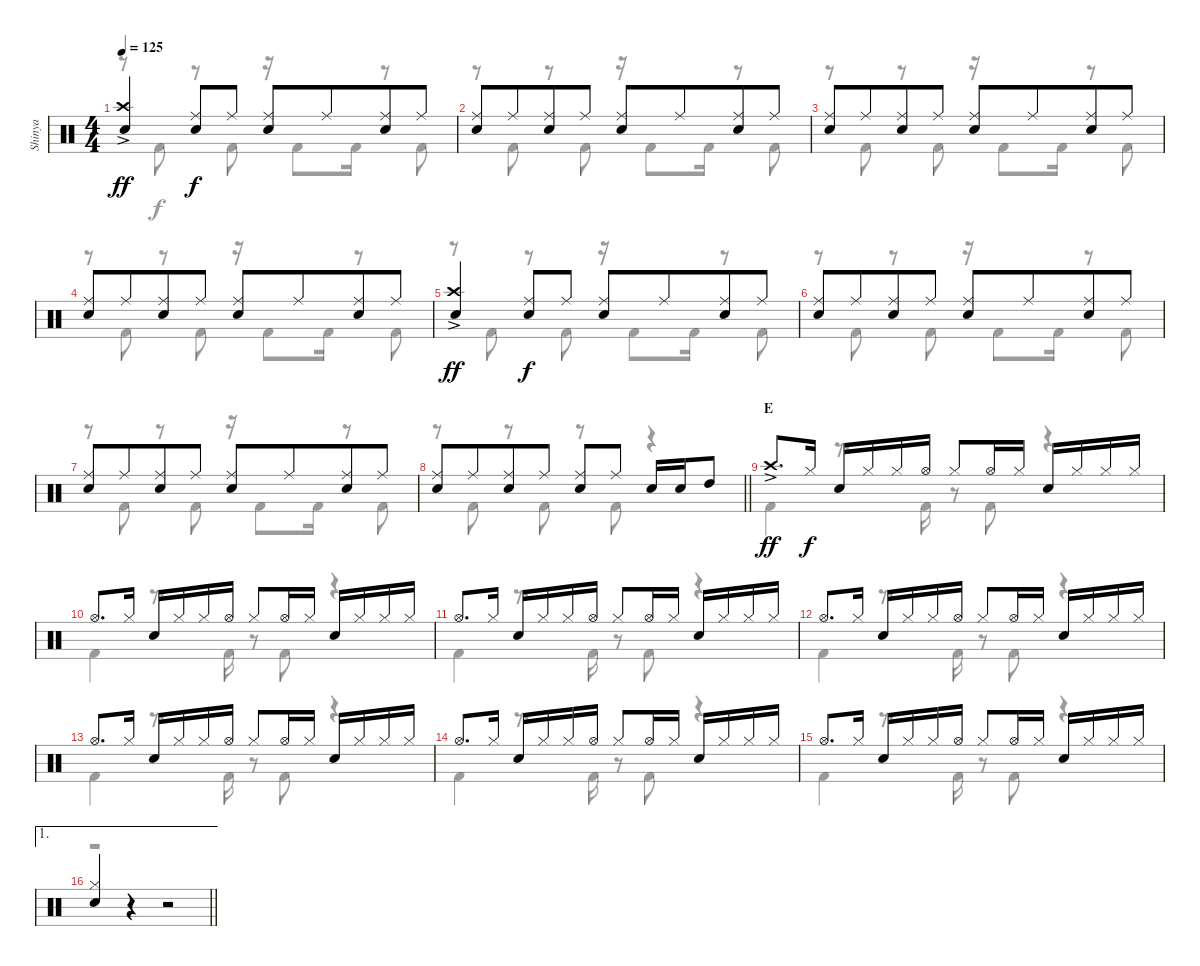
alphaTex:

\track ("Shinya" "Shinya") {instrument percussion}
\staff {score}
\articulation defaults
\voice
\ts (4 4)
\tempo 125
\clef neutral
\ks c
("Crash high (hit)"{ac} "Snare (hit) 2").4{dy ff} ("Ride (middle)" "Snare (hit) 2").8{dy f} "Ride (middle)".8 ("Ride (middle)" "Snare (hit) 2").8 "Ride (middle)".8{beam merge} ("Ride (middle)" "Snare (hit) 2").8 "Ride (middle)".8 |
("Ride (middle)" "Snare (hit) 2").8 "Ride (middle)".8{beam merge} ("Ride (middle)" "Snare (hit) 2").8 "Ride (middle)".8 ("Ride (middle)" "Snare (hit) 2").8 "Ride (middle)".8{beam merge} ("Ride (middle)" "Snare (hit) 2").8 "Ride (middle)".8 |
("Ride (middle)" "Snare (hit) 2").8 "Ride (middle)".8{beam merge} ("Ride (middle)" "Snare (hit) 2").8 "Ride (middle)".8 ("Ride (middle)" "Snare (hit) 2").8 "Ride (middle)".8{beam merge} ("Ride (middle)" "Snare (hit) 2").8 "Ride (middle)".8 |
("Ride (middle)" "Snare (hit) 2").8 "Ride (middle)".8{beam merge} ("Ride (middle)" "Snare (hit) 2").8 "Ride (middle)".8 ("Ride (middle)" "Snare (hit) 2").8 "Ride (middle)".8{beam merge} ("Ride (middle)" "Snare (hit) 2").8 "Ride (middle)".8 |
("Crash high (hit)"{ac} "Snare (hit) 2").4{dy ff} ("Ride (middle)" "Snare (hit) 2").8{dy f} "Ride (middle)".8 ("Ride (middle)" "Snare (hit) 2").8 "Ride (middle)".8{beam merge} ("Ride (middle)" "Snare (hit) 2").8 "Ride (middle)".8 |
("Ride (middle)" "Snare (hit) 2").8 "Ride (middle)".8{beam merge} ("Ride (middle)" "Snare (hit) 2").8 "Ride (middle)".8 ("Ride (middle)" "Snare (hit) 2").8 "Ride (middle)".8{beam merge} ("Ride (middle)" "Snare (hit) 2").8 "Ride (middle)".8 |
("Ride (middle)" "Snare (hit) 2").8 "Ride (middle)".8{beam merge} ("Ride (middle)" "Snare (hit) 2").8 "Ride (middle)".8 ("Ride (middle)" "Snare (hit) 2").8 "Ride (middle)".8{beam merge} ("Ride (middle)" "Snare (hit) 2").8 "Ride (middle)".8 |
\barLineRight lightlight
("Ride (middle)" "Snare (hit) 2").8 "Ride (middle)".8{beam merge} ("Ride (middle)" "Snare (hit) 2").8 "Ride (middle)".8 ("Ride (middle)" "Snare (hit) 2").8 "Ride (middle)".8 "Snare (hit) 2".16 "Snare (hit) 2".16 "High Tom (hit)".8 |
\section ("" "E")
"Crash high (hit)"{ac}.8{d dy ff} "Hi-Hat (closed)".16{dy f} "Snare (hit) 2".16 "Hi-Hat (closed)".16 "Hi-Hat (closed)".16 "Hi-Hat (open)".16 "Hi-Hat (closed)".8 "Hi-Hat (open)".16 "Hi-Hat (closed)".16 "Snare (hit) 2".16 "Hi-Hat (closed)".16 "Hi-Hat (closed)".16 "Hi-Hat (closed)".16 |
"Hi-Hat (open)".8{d} "Hi-Hat (closed)".16 "Snare (hit) 2".16 "Hi-Hat (closed)".16 "Hi-Hat (closed)".16 "Hi-Hat (open)".16 "Hi-Hat (closed)".8 "Hi-Hat (open)".16 "Hi-Hat (closed)".16 "Snare (hit) 2".16 "Hi-Hat (closed)".16 "Hi-Hat (closed)".16 "Hi-Hat (closed)".16 |
"Hi-Hat (open)".8{d} "Hi-Hat (closed)".16 "Snare (hit) 2".16 "Hi-Hat (closed)".16 "Hi-Hat (closed)".16 "Hi-Hat (open)".16 "Hi-Hat (closed)".8 "Hi-Hat (open)".16 "Hi-Hat (closed)".16 "Snare (hit) 2".16 "Hi-Hat (closed)".16 "Hi-Hat (closed)".16 "Hi-Hat (closed)".16 |
"Hi-Hat (open)".8{d} "Hi-Hat (closed)".16 "Snare (hit) 2".16 "Hi-Hat (closed)".16 "Hi-Hat (closed)".16 "Hi-Hat (open)".16 "Hi-Hat (closed)".8 "Hi-Hat (open)".16 "Hi-Hat (closed)".16 "Snare (hit) 2".16 "Hi-Hat (closed)".16 "Hi-Hat (closed)".16 "Hi-Hat (closed)".16 |
"Hi-Hat (open)".8{d} "Hi-Hat (closed)".16 "Snare (hit) 2".16 "Hi-Hat (closed)".16 "Hi-Hat (closed)".16 "Hi-Hat (open)".16 "Hi-Hat (closed)".8 "Hi-Hat (open)".16 "Hi-Hat (closed)".16 "Snare (hit) 2".16 "Hi-Hat (closed)".16 "Hi-Hat (closed)".16 "Hi-Hat (closed)".16 |
"Hi-Hat (open)".8{d} "Hi-Hat (closed)".16 "Snare (hit) 2".16 "Hi-Hat (closed)".16 "Hi-Hat (closed)".16 "Hi-Hat (open)".16 "Hi-Hat (closed)".8 "Hi-Hat (open)".16 "Hi-Hat (closed)".16 "Snare (hit) 2".16 "Hi-Hat (closed)".16 "Hi-Hat (closed)".16 "Hi-Hat (closed)".16 |
"Hi-Hat (open)".8{d} "Hi-Hat (closed)".16 "Snare (hit) 2".16 "Hi-Hat (closed)".16 "Hi-Hat (closed)".16 "Hi-Hat (open)".16 "Hi-Hat (closed)".8 "Hi-Hat (open)".16 "Hi-Hat (closed)".16 "Snare (hit) 2".16 "Hi-Hat (closed)".16 "Hi-Hat (closed)".16 "Hi-Hat (closed)".16 |
\ae 1
\barLineRight lightlight
("Hi-Hat (closed)" "Snare (hit) 2").4 r.4 r.2
\voice
\clef neutral
\ottava regular
\simile none
\ks c
r.8{dy f} "Kick (hit) 2".8 r.8 "Kick (hit) 2".8 r.16 "Kick (hit) 2".8 "Kick (hit) 2".16 r.8 "Kick (hit) 2".8 |
r.8 "Kick (hit) 2".8 r.8 "Kick (hit) 2".8 r.16 "Kick (hit) 2".8 "Kick (hit) 2".16 r.8 "Kick (hit) 2".8 |
r.8 "Kick (hit) 2".8 r.8 "Kick (hit) 2".8 r.16 "Kick (hit) 2".8 "Kick (hit) 2".16 r.8 "Kick (hit) 2".8 |
r.8 "Kick (hit) 2".8 r.8 "Kick (hit) 2".8 r.16 "Kick (hit) 2".8 "Kick (hit) 2".16 r.8 "Kick (hit) 2".8 |
r.8 "Kick (hit) 2".8 r.8 "Kick (hit) 2".8 r.16 "Kick (hit) 2".8 "Kick (hit) 2".16 r.8 "Kick (hit) 2".8 |
r.8 "Kick (hit) 2".8 r.8 "Kick (hit) 2".8 r.16 "Kick (hit) 2".8 "Kick (hit) 2".16 r.8 "Kick (hit) 2".8 |
r.8 "Kick (hit) 2".8 r.8 "Kick (hit) 2".8 r.16 "Kick (hit) 2".8 "Kick (hit) 2".16 r.8 "Kick (hit) 2".8 |
\barLineRight lightlight
r.8 "Kick (hit) 2".8 r.8 "Kick (hit) 2".8 r.8 "Kick (hit) 2".8 r.4 |
"Kick (hit) 2".4 r.8{d} "Kick (hit) 2".16 r.8 "Kick (hit) 2".8 r.4 |
"Kick (hit) 2".4 r.8{d} "Kick (hit) 2".16 r.8 "Kick (hit) 2".8 r.4 |
"Kick (hit) 2".4 r.8{d} "Kick (hit) 2".16 r.8 "Kick (hit) 2".8 r.4 |
"Kick (hit) 2".4 r.8{d} "Kick (hit) 2".16 r.8 "Kick (hit) 2".8 r.4 |
"Kick (hit) 2".4 r.8{d} "Kick (hit) 2".16 r.8 "Kick (hit) 2".8 r.4 |
"Kick (hit) 2".4 r.8{d} "Kick (hit) 2".16 r.8 "Kick (hit) 2".8 r.4 |
"Kick (hit) 2".4 r.8{d} "Kick (hit) 2".16 r.8 "Kick (hit) 2".8 r.4 |
\barLineRight lightlight
r.1
